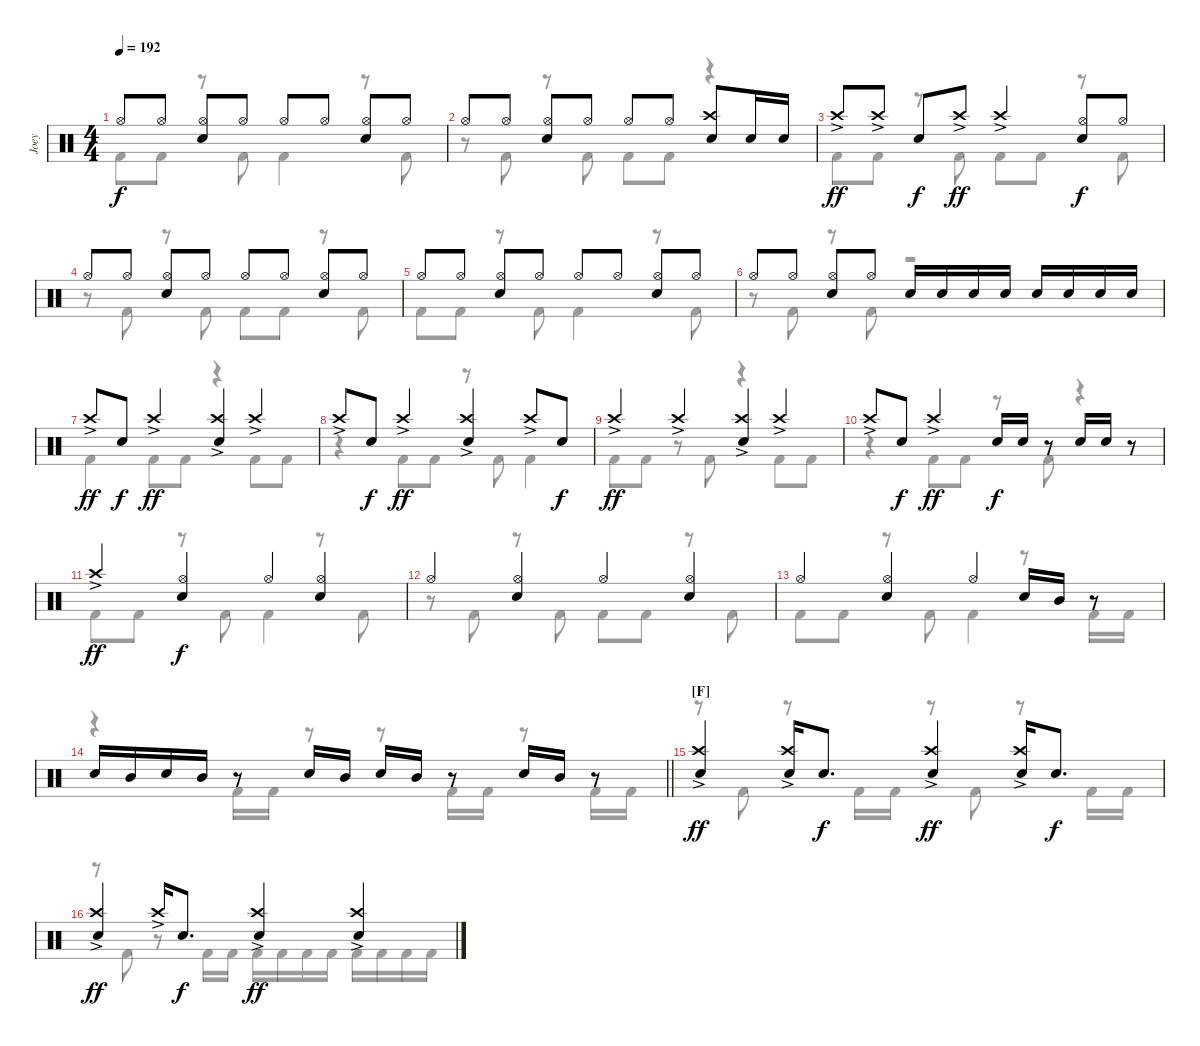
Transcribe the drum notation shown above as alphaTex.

\track ("Joey" "Joey") {instrument percussion}
\staff {score}
\articulation defaults
\voice
\ts (4 4)
\tempo 192
\clef neutral
\ks c "Hi-Hat (open)".8{dy f} "Hi-Hat (open)".8
("Hi-Hat (open)" "Snare (hit) 2").8 "Hi-Hat (open)".8 "Hi-Hat (open)".8 "Hi-Hat (open)".8 ("Hi-Hat (open)" "Snare (hit) 2").8 "Hi-Hat (open)".8 |
"Hi-Hat (open)".8 "Hi-Hat (open)".8 ("Hi-Hat (open)" "Snare (hit) 2").8 "Hi-Hat (open)".8 "Hi-Hat (open)".8 "Hi-Hat (open)".8 ("Crash high (hit)" "Snare (hit) 2").8 "Snare (hit) 2".16 "Snare (hit) 2".16 |
"Crash high (hit)"{ac}.8{dy ff} "Crash high (hit)"{ac}.8 "Snare (hit) 2".8{dy f} "Crash high (hit)"{ac}.8{dy ff} "Crash high (hit)"{ac}.4 ("Hi-Hat (open)" "Snare (hit) 2").8{dy f} "Hi-Hat (open)".8 |
"Hi-Hat (open)".8 "Hi-Hat (open)".8 ("Hi-Hat (open)" "Snare (hit) 2").8 "Hi-Hat (open)".8 "Hi-Hat (open)".8 "Hi-Hat (open)".8 ("Hi-Hat (open)" "Snare (hit) 2").8 "Hi-Hat (open)".8 |
"Hi-Hat (open)".8 "Hi-Hat (open)".8 ("Hi-Hat (open)" "Snare (hit) 2").8 "Hi-Hat (open)".8 "Hi-Hat (open)".8 "Hi-Hat (open)".8 ("Hi-Hat (open)" "Snare (hit) 2").8 "Hi-Hat (open)".8 |
"Hi-Hat (open)".8 "Hi-Hat (open)".8 ("Hi-Hat (open)" "Snare (hit) 2").8 "Hi-Hat (open)".8 "Snare (hit) 2".16 "Snare (hit) 2".16 "Snare (hit) 2".16 "Snare (hit) 2".16 "Snare (hit) 2".16 "Snare (hit) 2".16 "Snare (hit) 2".16 "Snare (hit) 2".16 |
"Crash high (hit)"{ac}.8{dy ff} "Snare (hit) 2".8{dy f} "Crash high (hit)"{ac}.4{dy ff} ("Crash high (hit)"{ac} "Snare (hit) 2").4 "Crash high (hit)"{ac}.4 |
"Crash high (hit)"{ac}.8 "Snare (hit) 2".8{dy f} "Crash high (hit)"{ac}.4{dy ff} ("Crash high (hit)"{ac} "Snare (hit) 2").4 "Crash high (hit)"{ac}.8 "Snare (hit) 2".8{dy f} |
"Crash high (hit)"{ac}.4{dy ff} "Crash high (hit)"{ac}.4 ("Crash high (hit)"{ac} "Snare (hit) 2").4 "Crash high (hit)"{ac}.4 |
"Crash high (hit)"{ac}.8 "Snare (hit) 2".8{dy f} "Crash high (hit)"{ac}.4{dy ff} "Snare (hit) 2".16{dy f} "Snare (hit) 2".16 r.8 "Snare (hit) 2".16 "Snare (hit) 2".16 r.8 |
"Crash high (hit)"{ac}.4{dy ff} ("Hi-Hat (open)" "Snare (hit) 2").4{dy f} "Hi-Hat (open)".4 ("Hi-Hat (open)" "Snare (hit) 2").4 |
"Hi-Hat (open)".4 ("Hi-Hat (open)" "Snare (hit) 2").4 "Hi-Hat (open)".4 ("Hi-Hat (open)" "Snare (hit) 2").4 |
"Hi-Hat (open)".4 ("Hi-Hat (open)" "Snare (hit) 2").4 "Hi-Hat (open)".4 "Snare (hit) 2".16 "Mid Tom (hit)".16 r.8 |
\barLineRight lightlight "Snare (hit) 2".16 "Mid Tom (hit)".16 "Snare (hit) 2".16 "Mid Tom (hit)".16
r.8 "Snare (hit) 2".16 "Mid Tom (hit)".16 "Snare (hit) 2".16 "Mid Tom (hit)".16 r.8 "Snare (hit) 2".16 "Mid Tom (hit)".16 r.8 |
\section ("" "[F]")
("Crash high (hit)"{ac} "Snare (hit) 2").4{dy ff} ("Crash high (hit)"{ac} "Snare (hit) 2").16 "Snare (hit) 2".8{d dy f} ("Crash high (hit)"{ac} "Snare (hit) 2").4{dy ff} ("Crash high (hit)"{ac} "Snare (hit) 2").16 "Snare (hit) 2".8{d dy f} |
("Crash high (hit)"{ac} "Snare (hit) 2").4{dy ff} "Crash high (hit)"{ac}.16 "Snare (hit) 2".8{d dy f} ("Crash high (hit)"{ac} "Snare (hit) 2").4{dy ff} ("Crash high (hit)"{ac} "Snare (hit) 2").4
\voice
\clef neutral
\ottava regular
\simile none
\ks c "Kick (hit) 2".8{dy f} "Kick (hit) 2".8
r.8 "Kick (hit) 2".8 "Kick (hit) 2".4 r.8 "Kick (hit) 2".8 |
r.8 "Kick (hit) 2".8 r.8 "Kick (hit) 2".8 "Kick (hit) 2".8 "Kick (hit) 2".8 r.4 |
"Kick (hit) 2".8 "Kick (hit) 2".8 r.8 "Kick (hit) 2".8 "Kick (hit) 2".8 "Kick (hit) 2".8 r.8 "Kick (hit) 2".8 |
r.8 "Kick (hit) 2".8 r.8 "Kick (hit) 2".8 "Kick (hit) 2".8 "Kick (hit) 2".8 r.8 "Kick (hit) 2".8 |
"Kick (hit) 2".8 "Kick (hit) 2".8 r.8 "Kick (hit) 2".8 "Kick (hit) 2".4 r.8 "Kick (hit) 2".8 |
r.8 "Kick (hit) 2".8 r.8 "Kick (hit) 2".8 r.2 |
"Kick (hit) 2".4 "Kick (hit) 2".8 "Kick (hit) 2".8 r.4 "Kick (hit) 2".8 "Kick (hit) 2".8 |
r.4 "Kick (hit) 2".8 "Kick (hit) 2".8 r.8 "Kick (hit) 2".8 "Kick (hit) 2".4 |
"Kick (hit) 2".8 "Kick (hit) 2".8 r.8 "Kick (hit) 2".8 r.4 "Kick (hit) 2".8 "Kick (hit) 2".8 |
r.4 "Kick (hit) 2".8 "Kick (hit) 2".8 r.8 "Kick (hit) 2".8 r.4 |
"Kick (hit) 2".8 "Kick (hit) 2".8 r.8 "Kick (hit) 2".8 "Kick (hit) 2".4 r.8 "Kick (hit) 2".8 |
r.8 "Kick (hit) 2".8 r.8 "Kick (hit) 2".8 "Kick (hit) 2".8 "Kick (hit) 2".8 r.8 "Kick (hit) 2".8 |
"Kick (hit) 2".8 "Kick (hit) 2".8 r.8 "Kick (hit) 2".8 "Kick (hit) 2".4 r.8 "Kick (hit) 2".16 "Kick (hit) 2".16 |
\barLineRight lightlight
r.4 "Kick (hit) 2".16 "Kick (hit) 2".16 r.8 r.8 "Kick (hit) 2".16 "Kick (hit) 2".16 r.8 "Kick (hit) 2".16 "Kick (hit) 2".16 |
r.8 "Kick (hit) 2".8 r.8 "Kick (hit) 2".16 "Kick (hit) 2".16 r.8 "Kick (hit) 2".8 r.8 "Kick (hit) 2".16 "Kick (hit) 2".16 |
r.8 "Kick (hit) 2".8 r.8 "Kick (hit) 2".16 "Kick (hit) 2".16 "Kick (hit) 2".16 "Kick (hit) 2".16 "Kick (hit) 2".16 "Kick (hit) 2".16 "Kick (hit) 2".16 "Kick (hit) 2".16 "Kick (hit) 2".16 "Kick (hit) 2".16
